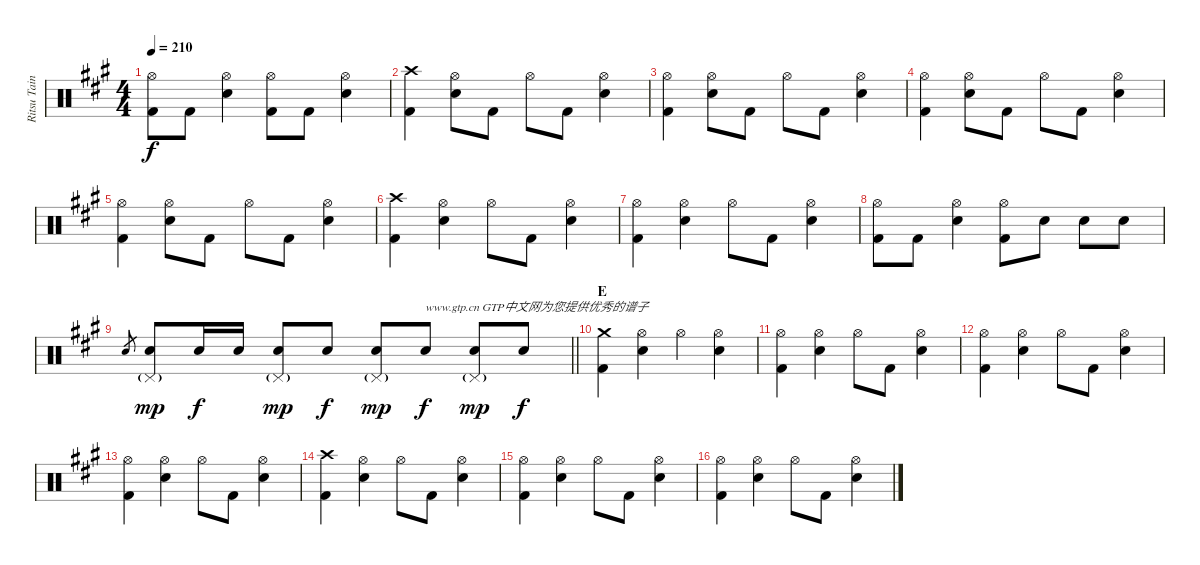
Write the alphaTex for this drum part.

\track ("Ritsu Tainaka" "Ritsu Tain") {instrument percussion}
\staff {score}
\articulation defaults
\ts (4 4)
\tempo 210
\clef neutral
\ks a
("Hi-Hat (open)" "Kick (hit) 2").8{dy f} "Kick (hit) 2".8 ("Hi-Hat (open)" "Electric Snare (hit)").4 ("Hi-Hat (open)" "Kick (hit) 2").8 "Kick (hit) 2".8 ("Hi-Hat (open)" "Electric Snare (hit)").4 |
("Crash high (hit)" "Kick (hit) 2").4 ("Hi-Hat (open)" "Electric Snare (hit)").8 "Kick (hit) 2".8 "Hi-Hat (open)".8 "Kick (hit) 2".8 ("Hi-Hat (open)" "Electric Snare (hit)").4 |
("Hi-Hat (open)" "Kick (hit) 2").4 ("Hi-Hat (open)" "Electric Snare (hit)").8 "Kick (hit) 2".8 "Hi-Hat (open)".8 "Kick (hit) 2".8 ("Hi-Hat (open)" "Electric Snare (hit)").4 |
("Hi-Hat (open)" "Kick (hit) 2").4 ("Hi-Hat (open)" "Electric Snare (hit)").8 "Kick (hit) 2".8 "Hi-Hat (open)".8 "Kick (hit) 2".8 ("Hi-Hat (open)" "Electric Snare (hit)").4 |
("Hi-Hat (open)" "Kick (hit) 2").4 ("Hi-Hat (open)" "Electric Snare (hit)").8 "Kick (hit) 2".8 "Hi-Hat (open)".8 "Kick (hit) 2".8 ("Hi-Hat (open)" "Electric Snare (hit)").4 |
("Crash high (hit)" "Kick (hit) 2").4 ("Hi-Hat (open)" "Electric Snare (hit)").4 "Hi-Hat (open)".8 "Kick (hit) 2".8 ("Hi-Hat (open)" "Electric Snare (hit)").4 |
("Hi-Hat (open)" "Kick (hit) 2").4 ("Hi-Hat (open)" "Electric Snare (hit)").4 "Hi-Hat (open)".8 "Kick (hit) 2".8 ("Hi-Hat (open)" "Electric Snare (hit)").4 |
("Hi-Hat (open)" "Kick (hit) 2").8 "Kick (hit) 2".8 ("Hi-Hat (open)" "Electric Snare (hit)").4 ("Hi-Hat (open)" "Kick (hit) 2").8 "Electric Snare (hit)".8 "Electric Snare (hit)".8 "Electric Snare (hit)".8 |
\barLineRight lightlight "Electric Snare (hit)".8{gr}
("Pedal Hi-Hat (hit)"{g} "Electric Snare (hit)").8{dy mp} "Electric Snare (hit)".16{dy f} "Electric Snare (hit)".16 ("Pedal Hi-Hat (hit)"{g} "Electric Snare (hit)").8{dy mp} "Electric Snare (hit)".8{dy f} ("Pedal Hi-Hat (hit)"{g} "Electric Snare (hit)").8{dy mp} "Electric Snare (hit)".8{txt "www.gtp.cn GTP中文网为您提供优秀的谱子" dy f} ("Pedal Hi-Hat (hit)"{g} "Electric Snare (hit)").8{dy mp} "Electric Snare (hit)".8{dy f} |
\section ("" "E")
("Crash medium (hit)" "Kick (hit) 2").4 ("Hi-Hat (open)" "Electric Snare (hit)").4 "Hi-Hat (open)".4 ("Hi-Hat (open)" "Electric Snare (hit)").4 |
("Hi-Hat (open)" "Kick (hit) 2").4 ("Hi-Hat (open)" "Electric Snare (hit)").4 "Hi-Hat (open)".8 "Kick (hit) 2".8 ("Hi-Hat (open)" "Electric Snare (hit)").4 |
("Hi-Hat (open)" "Kick (hit) 2").4 ("Hi-Hat (open)" "Electric Snare (hit)").4 "Hi-Hat (open)".8 "Kick (hit) 2".8 ("Hi-Hat (open)" "Electric Snare (hit)").4 |
("Hi-Hat (open)" "Kick (hit) 2").4 ("Hi-Hat (open)" "Electric Snare (hit)").4 "Hi-Hat (open)".8 "Kick (hit) 2".8 ("Hi-Hat (open)" "Electric Snare (hit)").4 |
("Crash high (hit)" "Kick (hit) 2").4 ("Hi-Hat (open)" "Electric Snare (hit)").4 "Hi-Hat (open)".8 "Kick (hit) 2".8 ("Hi-Hat (open)" "Electric Snare (hit)").4 |
("Hi-Hat (open)" "Kick (hit) 2").4 ("Hi-Hat (open)" "Electric Snare (hit)").4 "Hi-Hat (open)".8 "Kick (hit) 2".8 ("Hi-Hat (open)" "Electric Snare (hit)").4 |
("Hi-Hat (open)" "Kick (hit) 2").4 ("Hi-Hat (open)" "Electric Snare (hit)").4 "Hi-Hat (open)".8 "Kick (hit) 2".8 ("Hi-Hat (open)" "Electric Snare (hit)").4
